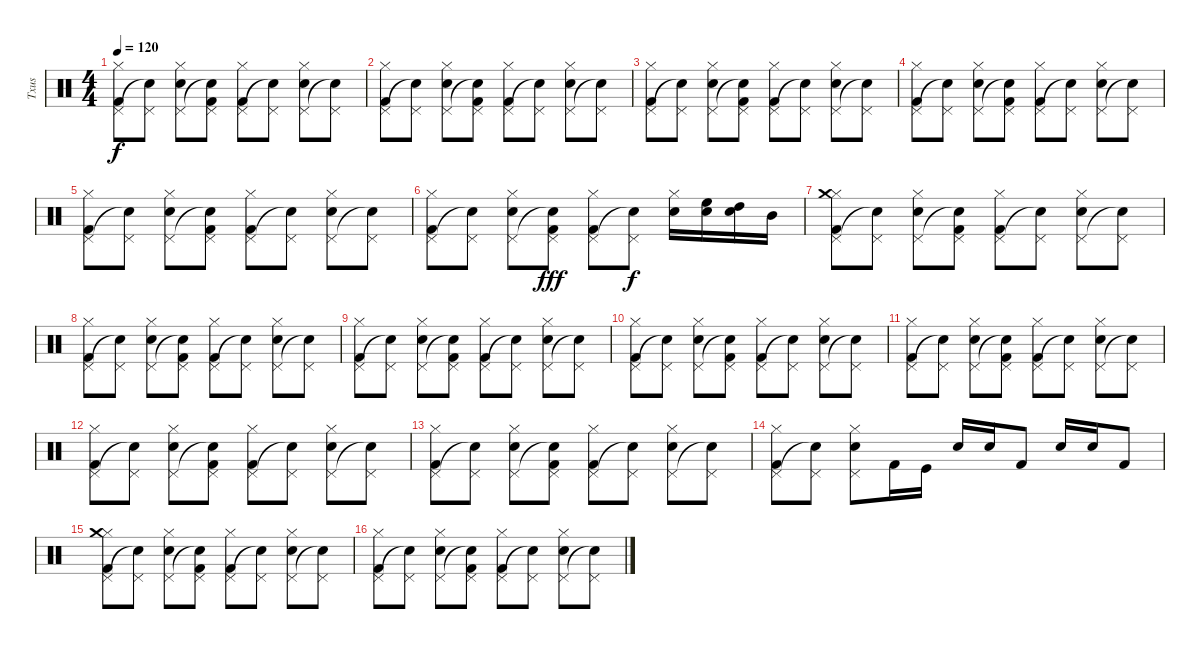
\track ("Txus" "Txus") {instrument percussion}
\staff {score}
\articulation defaults
\ts (4 4)
\tempo 120
\clef neutral
\ks c
("Hi-Hat (closed)" "Pedal Hi-Hat (hit)" "Kick (hit) 2").8{dy f} ("Pedal Hi-Hat (hit)" "Snare (hit)"{t}).8 ("Hi-Hat (closed)" "Pedal Hi-Hat (hit)" "Snare (hit) 2").8 ("Pedal Hi-Hat (hit)" "Snare (hit)"{t} "Kick (hit) 2").8 ("Hi-Hat (closed)" "Pedal Hi-Hat (hit)" "Kick (hit) 2").8 ("Pedal Hi-Hat (hit)" "Snare (hit)"{t}).8 ("Hi-Hat (closed)" "Pedal Hi-Hat (hit)" "Snare (hit) 2").8 ("Pedal Hi-Hat (hit)" "Snare (hit) 2"{t}).8 |
("Hi-Hat (closed)" "Pedal Hi-Hat (hit)" "Kick (hit) 2").8 ("Pedal Hi-Hat (hit)" "Snare (hit)"{t}).8 ("Hi-Hat (closed)" "Pedal Hi-Hat (hit)" "Snare (hit) 2").8 ("Pedal Hi-Hat (hit)" "Snare (hit)"{t} "Kick (hit) 2").8 ("Hi-Hat (closed)" "Pedal Hi-Hat (hit)" "Kick (hit) 2").8 ("Pedal Hi-Hat (hit)" "Snare (hit)"{t}).8 ("Hi-Hat (closed)" "Pedal Hi-Hat (hit)" "Snare (hit) 2").8 ("Pedal Hi-Hat (hit)" "Snare (hit) 2"{t}).8 |
("Hi-Hat (closed)" "Pedal Hi-Hat (hit)" "Kick (hit) 2").8 ("Pedal Hi-Hat (hit)" "Snare (hit)"{t}).8 ("Hi-Hat (closed)" "Pedal Hi-Hat (hit)" "Snare (hit) 2").8 ("Pedal Hi-Hat (hit)" "Snare (hit)"{t} "Kick (hit) 2").8 ("Hi-Hat (closed)" "Pedal Hi-Hat (hit)" "Kick (hit) 2").8 ("Pedal Hi-Hat (hit)" "Snare (hit)"{t}).8 ("Hi-Hat (closed)" "Pedal Hi-Hat (hit)" "Snare (hit) 2").8 ("Pedal Hi-Hat (hit)" "Snare (hit) 2"{t}).8 |
("Hi-Hat (closed)" "Pedal Hi-Hat (hit)" "Kick (hit) 2").8 ("Pedal Hi-Hat (hit)" "Snare (hit)"{t}).8 ("Hi-Hat (closed)" "Pedal Hi-Hat (hit)" "Snare (hit) 2").8 ("Pedal Hi-Hat (hit)" "Snare (hit)"{t} "Kick (hit) 2").8 ("Hi-Hat (closed)" "Pedal Hi-Hat (hit)" "Kick (hit) 2").8 ("Pedal Hi-Hat (hit)" "Snare (hit)"{t}).8 ("Hi-Hat (closed)" "Pedal Hi-Hat (hit)" "Snare (hit) 2").8 ("Pedal Hi-Hat (hit)" "Snare (hit) 2"{t}).8 |
("Hi-Hat (closed)" "Pedal Hi-Hat (hit)" "Kick (hit) 2").8 ("Pedal Hi-Hat (hit)" "Snare (hit)"{t}).8 ("Hi-Hat (closed)" "Pedal Hi-Hat (hit)" "Snare (hit) 2").8 ("Pedal Hi-Hat (hit)" "Snare (hit)"{t} "Kick (hit) 2").8 ("Hi-Hat (closed)" "Pedal Hi-Hat (hit)" "Kick (hit) 2").8 ("Pedal Hi-Hat (hit)" "Snare (hit)"{t}).8 ("Hi-Hat (closed)" "Pedal Hi-Hat (hit)" "Snare (hit) 2").8 ("Pedal Hi-Hat (hit)" "Snare (hit) 2"{t}).8 |
("Hi-Hat (closed)" "Pedal Hi-Hat (hit)" "Kick (hit) 2").8 ("Pedal Hi-Hat (hit)" "Snare (hit)"{t}).8 ("Hi-Hat (closed)" "Pedal Hi-Hat (hit)" "Snare (hit) 2").8 ("Pedal Hi-Hat (hit)" "Snare (hit)"{t} "Kick (hit) 2").8{dy fff} ("Hi-Hat (closed)" "Pedal Hi-Hat (hit)" "Kick (hit) 2").8 ("Pedal Hi-Hat (hit)" "Snare (hit)"{t}).8{dy f} ("Hi-Hat (closed)" "Snare (hit) 2").16 ("High Floor Tom (hit)" "Snare (hit) 2").16 ("High Tom (hit)" "Snare (hit) 2").16 "Mid Tom (hit)".16 |
("Hi-Hat (closed)" "Pedal Hi-Hat (hit)" "Crash medium (hit)" "Kick (hit) 2").8 ("Pedal Hi-Hat (hit)" "Snare (hit)"{t}).8 ("Hi-Hat (closed)" "Pedal Hi-Hat (hit)" "Snare (hit) 2").8 ("Pedal Hi-Hat (hit)" "Snare (hit)"{t} "Kick (hit) 2").8 ("Hi-Hat (closed)" "Pedal Hi-Hat (hit)" "Kick (hit) 2").8 ("Pedal Hi-Hat (hit)" "Snare (hit)"{t}).8 ("Hi-Hat (closed)" "Pedal Hi-Hat (hit)" "Snare (hit) 2").8 ("Pedal Hi-Hat (hit)" "Snare (hit) 2"{t}).8 |
("Hi-Hat (closed)" "Pedal Hi-Hat (hit)" "Kick (hit) 2").8 ("Pedal Hi-Hat (hit)" "Snare (hit)"{t}).8 ("Hi-Hat (closed)" "Pedal Hi-Hat (hit)" "Snare (hit) 2").8 ("Pedal Hi-Hat (hit)" "Snare (hit)"{t} "Kick (hit) 2").8 ("Hi-Hat (closed)" "Pedal Hi-Hat (hit)" "Kick (hit) 2").8 ("Pedal Hi-Hat (hit)" "Snare (hit)"{t}).8 ("Hi-Hat (closed)" "Pedal Hi-Hat (hit)" "Snare (hit) 2").8 ("Pedal Hi-Hat (hit)" "Snare (hit) 2"{t}).8 |
("Hi-Hat (closed)" "Pedal Hi-Hat (hit)" "Kick (hit) 2").8 ("Pedal Hi-Hat (hit)" "Snare (hit)"{t}).8 ("Hi-Hat (closed)" "Pedal Hi-Hat (hit)" "Snare (hit) 2").8 ("Pedal Hi-Hat (hit)" "Snare (hit)"{t} "Kick (hit) 2").8 ("Hi-Hat (closed)" "Pedal Hi-Hat (hit)" "Kick (hit) 2").8 ("Pedal Hi-Hat (hit)" "Snare (hit)"{t}).8 ("Hi-Hat (closed)" "Pedal Hi-Hat (hit)" "Snare (hit) 2").8 ("Pedal Hi-Hat (hit)" "Snare (hit) 2"{t}).8 |
("Hi-Hat (closed)" "Pedal Hi-Hat (hit)" "Kick (hit) 2").8 ("Pedal Hi-Hat (hit)" "Snare (hit)"{t}).8 ("Hi-Hat (closed)" "Pedal Hi-Hat (hit)" "Snare (hit) 2").8 ("Pedal Hi-Hat (hit)" "Snare (hit)"{t} "Kick (hit) 2").8 ("Hi-Hat (closed)" "Pedal Hi-Hat (hit)" "Kick (hit) 2").8 ("Pedal Hi-Hat (hit)" "Snare (hit)"{t}).8 ("Hi-Hat (closed)" "Pedal Hi-Hat (hit)" "Snare (hit) 2").8 ("Pedal Hi-Hat (hit)" "Snare (hit) 2"{t}).8 |
("Hi-Hat (closed)" "Pedal Hi-Hat (hit)" "Kick (hit) 2").8 ("Pedal Hi-Hat (hit)" "Snare (hit)"{t}).8 ("Hi-Hat (closed)" "Pedal Hi-Hat (hit)" "Snare (hit) 2").8 ("Pedal Hi-Hat (hit)" "Snare (hit)"{t} "Kick (hit) 2").8 ("Hi-Hat (closed)" "Pedal Hi-Hat (hit)" "Kick (hit) 2").8 ("Pedal Hi-Hat (hit)" "Snare (hit)"{t}).8 ("Hi-Hat (closed)" "Pedal Hi-Hat (hit)" "Snare (hit) 2").8 ("Pedal Hi-Hat (hit)" "Snare (hit) 2"{t}).8 |
("Hi-Hat (closed)" "Pedal Hi-Hat (hit)" "Kick (hit) 2").8 ("Pedal Hi-Hat (hit)" "Snare (hit)"{t}).8 ("Hi-Hat (closed)" "Pedal Hi-Hat (hit)" "Snare (hit) 2").8 ("Pedal Hi-Hat (hit)" "Snare (hit)"{t} "Kick (hit) 2").8 ("Hi-Hat (closed)" "Pedal Hi-Hat (hit)" "Kick (hit) 2").8 ("Pedal Hi-Hat (hit)" "Snare (hit)"{t}).8 ("Hi-Hat (closed)" "Pedal Hi-Hat (hit)" "Snare (hit) 2").8 ("Pedal Hi-Hat (hit)" "Snare (hit) 2"{t}).8 |
("Hi-Hat (closed)" "Pedal Hi-Hat (hit)" "Kick (hit) 2").8 ("Pedal Hi-Hat (hit)" "Snare (hit)"{t}).8 ("Hi-Hat (closed)" "Pedal Hi-Hat (hit)" "Snare (hit) 2").8 ("Pedal Hi-Hat (hit)" "Snare (hit)"{t} "Kick (hit) 2").8 ("Hi-Hat (closed)" "Pedal Hi-Hat (hit)" "Kick (hit) 2").8 ("Pedal Hi-Hat (hit)" "Snare (hit)"{t}).8 ("Hi-Hat (closed)" "Pedal Hi-Hat (hit)" "Snare (hit) 2").8 ("Pedal Hi-Hat (hit)" "Snare (hit) 2"{t}).8 |
("Hi-Hat (closed)" "Pedal Hi-Hat (hit)" "Kick (hit) 2").8 ("Pedal Hi-Hat (hit)" "Snare (hit)"{t}).8 ("Hi-Hat (closed)" "Pedal Hi-Hat (hit)" "Snare (hit) 2").8 "Kick (hit) 2".16 "Kick (hit)".16 "Snare (hit) 2".16 "Snare (hit) 2".16 "Kick (hit) 2".8 "Snare (hit) 2".16 "Snare (hit) 2".16 "Kick (hit) 2".8 |
("Hi-Hat (closed)" "Pedal Hi-Hat (hit)" "Crash medium (hit)" "Kick (hit) 2").8 ("Pedal Hi-Hat (hit)" "Snare (hit)"{t}).8 ("Hi-Hat (closed)" "Pedal Hi-Hat (hit)" "Snare (hit) 2").8 ("Pedal Hi-Hat (hit)" "Snare (hit)"{t} "Kick (hit) 2").8 ("Hi-Hat (closed)" "Pedal Hi-Hat (hit)" "Kick (hit) 2").8 ("Pedal Hi-Hat (hit)" "Snare (hit)"{t}).8 ("Hi-Hat (closed)" "Pedal Hi-Hat (hit)" "Snare (hit) 2").8 ("Pedal Hi-Hat (hit)" "Snare (hit) 2"{t}).8 |
("Hi-Hat (closed)" "Pedal Hi-Hat (hit)" "Kick (hit) 2").8 ("Pedal Hi-Hat (hit)" "Snare (hit)"{t}).8 ("Hi-Hat (closed)" "Pedal Hi-Hat (hit)" "Snare (hit) 2").8 ("Pedal Hi-Hat (hit)" "Snare (hit)"{t} "Kick (hit) 2").8 ("Hi-Hat (closed)" "Pedal Hi-Hat (hit)" "Kick (hit) 2").8 ("Pedal Hi-Hat (hit)" "Snare (hit)"{t}).8 ("Hi-Hat (closed)" "Pedal Hi-Hat (hit)" "Snare (hit) 2").8 ("Pedal Hi-Hat (hit)" "Snare (hit) 2"{t}).8
